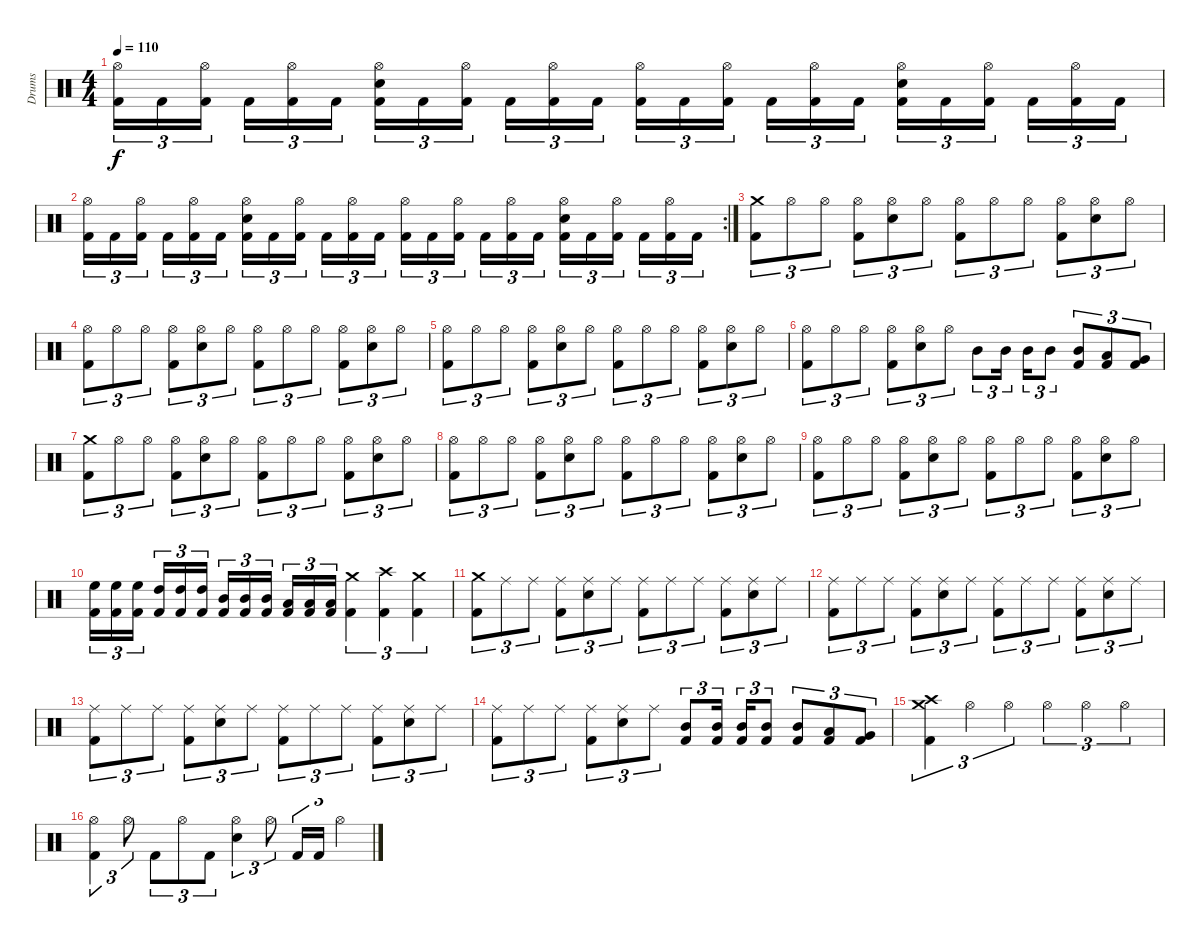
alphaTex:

\track ("Drums" "Drums") {instrument percussion}
\staff {score}
\articulation defaults
\ts (4 4)
\tempo 110
\clef neutral
\ks c
("Kick (hit) 2" "Hi-Hat (open)").16{tu (3 2) dy f} "Kick (hit) 2".16{tu (3 2)} ("Kick (hit) 2" "Hi-Hat (open)").16{tu (3 2)} "Kick (hit) 2".16{tu (3 2)} ("Kick (hit) 2" "Hi-Hat (open)").16{tu (3 2)} "Kick (hit) 2".16{tu (3 2)} ("Kick (hit) 2" "Electric Snare (hit)" "Hi-Hat (open)").16{tu (3 2)} "Kick (hit) 2".16{tu (3 2)} ("Kick (hit) 2" "Hi-Hat (open)").16{tu (3 2)} "Kick (hit) 2".16{tu (3 2)} ("Kick (hit) 2" "Hi-Hat (open)").16{tu (3 2)} "Kick (hit) 2".16{tu (3 2)} ("Kick (hit) 2" "Hi-Hat (open)").16{tu (3 2)} "Kick (hit) 2".16{tu (3 2)} ("Kick (hit) 2" "Hi-Hat (open)").16{tu (3 2)} "Kick (hit) 2".16{tu (3 2)} ("Kick (hit) 2" "Hi-Hat (open)").16{tu (3 2)} "Kick (hit) 2".16{tu (3 2)} ("Kick (hit) 2" "Electric Snare (hit)" "Hi-Hat (open)").16{tu (3 2)} "Kick (hit) 2".16{tu (3 2)} ("Kick (hit) 2" "Hi-Hat (open)").16{tu (3 2)} "Kick (hit) 2".16{tu (3 2)} ("Kick (hit) 2" "Hi-Hat (open)").16{tu (3 2)} "Kick (hit) 2".16{tu (3 2)} |
\rc 2
("Kick (hit) 2" "Hi-Hat (open)").16{tu (3 2)} "Kick (hit) 2".16{tu (3 2)} ("Kick (hit) 2" "Hi-Hat (open)").16{tu (3 2)} "Kick (hit) 2".16{tu (3 2)} ("Kick (hit) 2" "Hi-Hat (open)").16{tu (3 2)} "Kick (hit) 2".16{tu (3 2)} ("Kick (hit) 2" "Electric Snare (hit)" "Hi-Hat (open)").16{tu (3 2)} "Kick (hit) 2".16{tu (3 2)} ("Kick (hit) 2" "Hi-Hat (open)").16{tu (3 2)} "Kick (hit) 2".16{tu (3 2)} ("Kick (hit) 2" "Hi-Hat (open)").16{tu (3 2)} "Kick (hit) 2".16{tu (3 2)} ("Kick (hit) 2" "Hi-Hat (open)").16{tu (3 2)} "Kick (hit) 2".16{tu (3 2)} ("Kick (hit) 2" "Hi-Hat (open)").16{tu (3 2)} "Kick (hit) 2".16{tu (3 2)} ("Kick (hit) 2" "Hi-Hat (open)").16{tu (3 2)} "Kick (hit) 2".16{tu (3 2)} ("Kick (hit) 2" "Electric Snare (hit)" "Hi-Hat (open)").16{tu (3 2)} "Kick (hit) 2".16{tu (3 2)} ("Kick (hit) 2" "Hi-Hat (open)").16{tu (3 2)} "Kick (hit) 2".16{tu (3 2)} ("Kick (hit) 2" "Hi-Hat (open)").16{tu (3 2)} "Kick (hit) 2".16{tu (3 2)} |
("Kick (hit) 2" "Crash medium (hit)").8{tu (3 2)} "Hi-Hat (open)".8{tu (3 2)} "Hi-Hat (open)".8{tu (3 2)} ("Kick (hit) 2" "Hi-Hat (open)").8{tu (3 2)} ("Electric Snare (hit)" "Hi-Hat (open)").8{tu (3 2)} "Hi-Hat (open)".8{tu (3 2)} ("Kick (hit) 2" "Hi-Hat (open)").8{tu (3 2)} "Hi-Hat (open)".8{tu (3 2)} "Hi-Hat (open)".8{tu (3 2)} ("Kick (hit) 2" "Hi-Hat (open)").8{tu (3 2)} ("Electric Snare (hit)" "Hi-Hat (open)").8{tu (3 2)} "Hi-Hat (open)".8{tu (3 2)} |
("Kick (hit) 2" "Hi-Hat (open)").8{tu (3 2)} "Hi-Hat (open)".8{tu (3 2)} "Hi-Hat (open)".8{tu (3 2)} ("Kick (hit) 2" "Hi-Hat (open)").8{tu (3 2)} ("Electric Snare (hit)" "Hi-Hat (open)").8{tu (3 2)} "Hi-Hat (open)".8{tu (3 2)} ("Kick (hit) 2" "Hi-Hat (open)").8{tu (3 2)} "Hi-Hat (open)".8{tu (3 2)} "Hi-Hat (open)".8{tu (3 2)} ("Kick (hit) 2" "Hi-Hat (open)").8{tu (3 2)} ("Electric Snare (hit)" "Hi-Hat (open)").8{tu (3 2)} "Hi-Hat (open)".8{tu (3 2)} |
("Kick (hit) 2" "Hi-Hat (open)").8{tu (3 2)} "Hi-Hat (open)".8{tu (3 2)} "Hi-Hat (open)".8{tu (3 2)} ("Kick (hit) 2" "Hi-Hat (open)").8{tu (3 2)} ("Electric Snare (hit)" "Hi-Hat (open)").8{tu (3 2)} "Hi-Hat (open)".8{tu (3 2)} ("Kick (hit) 2" "Hi-Hat (open)").8{tu (3 2)} "Hi-Hat (open)".8{tu (3 2)} "Hi-Hat (open)".8{tu (3 2)} ("Kick (hit) 2" "Hi-Hat (open)").8{tu (3 2)} ("Electric Snare (hit)" "Hi-Hat (open)").8{tu (3 2)} "Hi-Hat (open)".8{tu (3 2)} |
("Kick (hit) 2" "Hi-Hat (open)").8{tu (3 2)} "Hi-Hat (open)".8{tu (3 2)} "Hi-Hat (open)".8{tu (3 2)} ("Kick (hit) 2" "Hi-Hat (open)").8{tu (3 2)} ("Electric Snare (hit)" "Hi-Hat (open)").8{tu (3 2)} "Hi-Hat (open)".8{tu (3 2)} "Mid Tom (hit)".8{tu (3 2)} "Mid Tom (hit)".16{tu (3 2)} "Mid Tom (hit)".16{tu (3 2)} "Mid Tom (hit)".8{tu (3 2)} ("Kick (hit) 2" "Mid Tom (hit)").8{tu (3 2)} ("Kick (hit) 2" "Low Tom (hit)").8{tu (3 2)} ("Kick (hit) 2" "Very Low Tom (hit)").8{tu (3 2)} |
("Kick (hit) 2" "Crash medium (hit)").8{tu (3 2)} "Hi-Hat (open)".8{tu (3 2)} "Hi-Hat (open)".8{tu (3 2)} ("Kick (hit) 2" "Hi-Hat (open)").8{tu (3 2)} ("Electric Snare (hit)" "Hi-Hat (open)").8{tu (3 2)} "Hi-Hat (open)".8{tu (3 2)} ("Kick (hit) 2" "Hi-Hat (open)").8{tu (3 2)} "Hi-Hat (open)".8{tu (3 2)} "Hi-Hat (open)".8{tu (3 2)} ("Kick (hit) 2" "Hi-Hat (open)").8{tu (3 2)} ("Electric Snare (hit)" "Hi-Hat (open)").8{tu (3 2)} "Hi-Hat (open)".8{tu (3 2)} |
("Kick (hit) 2" "Hi-Hat (open)").8{tu (3 2)} "Hi-Hat (open)".8{tu (3 2)} "Hi-Hat (open)".8{tu (3 2)} ("Kick (hit) 2" "Hi-Hat (open)").8{tu (3 2)} ("Electric Snare (hit)" "Hi-Hat (open)").8{tu (3 2)} "Hi-Hat (open)".8{tu (3 2)} ("Kick (hit) 2" "Hi-Hat (open)").8{tu (3 2)} "Hi-Hat (open)".8{tu (3 2)} "Hi-Hat (open)".8{tu (3 2)} ("Kick (hit) 2" "Hi-Hat (open)").8{tu (3 2)} ("Electric Snare (hit)" "Hi-Hat (open)").8{tu (3 2)} "Hi-Hat (open)".8{tu (3 2)} |
("Kick (hit) 2" "Hi-Hat (open)").8{tu (3 2)} "Hi-Hat (open)".8{tu (3 2)} "Hi-Hat (open)".8{tu (3 2)} ("Kick (hit) 2" "Hi-Hat (open)").8{tu (3 2)} ("Electric Snare (hit)" "Hi-Hat (open)").8{tu (3 2)} "Hi-Hat (open)".8{tu (3 2)} ("Kick (hit) 2" "Hi-Hat (open)").8{tu (3 2)} "Hi-Hat (open)".8{tu (3 2)} "Hi-Hat (open)".8{tu (3 2)} ("Kick (hit) 2" "Hi-Hat (open)").8{tu (3 2)} ("Electric Snare (hit)" "Hi-Hat (open)").8{tu (3 2)} "Hi-Hat (open)".8{tu (3 2)} |
("Kick (hit) 2" "High Floor Tom (hit)").16{tu (3 2)} ("Kick (hit) 2" "High Floor Tom (hit)").16{tu (3 2)} ("Kick (hit) 2" "High Floor Tom (hit)").16{tu (3 2)} ("Kick (hit) 2" "High Tom (hit)").16{tu (3 2)} ("Kick (hit) 2" "High Tom (hit)").16{tu (3 2)} ("Kick (hit) 2" "High Tom (hit)").16{tu (3 2)} ("Kick (hit) 2" "Mid Tom (hit)").16{tu (3 2)} ("Kick (hit) 2" "Mid Tom (hit)").16{tu (3 2)} ("Kick (hit) 2" "Mid Tom (hit)").16{tu (3 2)} ("Kick (hit) 2" "Low Tom (hit)").16{tu (3 2)} ("Kick (hit) 2" "Low Tom (hit)").16{tu (3 2)} ("Kick (hit) 2" "Low Tom (hit)").16{tu (3 2)} ("Kick (hit) 2" "Crash medium (hit)").4{tu (3 2)} ("Kick (hit) 2" "Crash high (hit)").4{tu (3 2)} ("Kick (hit) 2" "Crash medium (hit)").4{tu (3 2)} |
("Kick (hit) 2" "Crash medium (hit)").8{tu (3 2)} "Ride (middle)".8{tu (3 2)} "Ride (middle)".8{tu (3 2)} ("Kick (hit) 2" "Ride (middle)").8{tu (3 2)} ("Electric Snare (hit)" "Ride (middle)").8{tu (3 2)} "Ride (middle)".8{tu (3 2)} ("Kick (hit) 2" "Ride (middle)").8{tu (3 2)} "Ride (middle)".8{tu (3 2)} "Ride (middle)".8{tu (3 2)} ("Kick (hit) 2" "Ride (middle)").8{tu (3 2)} ("Electric Snare (hit)" "Ride (middle)").8{tu (3 2)} "Ride (middle)".8{tu (3 2)} |
("Kick (hit) 2" "Ride (middle)").8{tu (3 2)} "Ride (middle)".8{tu (3 2)} "Ride (middle)".8{tu (3 2)} ("Kick (hit) 2" "Ride (middle)").8{tu (3 2)} ("Electric Snare (hit)" "Ride (middle)").8{tu (3 2)} "Ride (middle)".8{tu (3 2)} ("Kick (hit) 2" "Ride (middle)").8{tu (3 2)} "Ride (middle)".8{tu (3 2)} "Ride (middle)".8{tu (3 2)} ("Kick (hit) 2" "Ride (middle)").8{tu (3 2)} ("Electric Snare (hit)" "Ride (middle)").8{tu (3 2)} "Ride (middle)".8{tu (3 2)} |
("Kick (hit) 2" "Ride (middle)").8{tu (3 2)} "Ride (middle)".8{tu (3 2)} "Ride (middle)".8{tu (3 2)} ("Kick (hit) 2" "Ride (middle)").8{tu (3 2)} ("Electric Snare (hit)" "Ride (middle)").8{tu (3 2)} "Ride (middle)".8{tu (3 2)} ("Kick (hit) 2" "Ride (middle)").8{tu (3 2)} "Ride (middle)".8{tu (3 2)} "Ride (middle)".8{tu (3 2)} ("Kick (hit) 2" "Ride (middle)").8{tu (3 2)} ("Electric Snare (hit)" "Ride (middle)").8{tu (3 2)} "Ride (middle)".8{tu (3 2)} |
("Kick (hit) 2" "Ride (middle)").8{tu (3 2)} "Ride (middle)".8{tu (3 2)} "Ride (middle)".8{tu (3 2)} ("Kick (hit) 2" "Ride (middle)").8{tu (3 2)} ("Electric Snare (hit)" "Ride (middle)").8{tu (3 2)} "Ride (middle)".8{tu (3 2)} ("Kick (hit) 2" "Mid Tom (hit)").8{tu (3 2)} ("Kick (hit) 2" "Mid Tom (hit)").16{tu (3 2)} ("Kick (hit) 2" "Mid Tom (hit)").16{tu (3 2)} ("Kick (hit) 2" "Mid Tom (hit)").8{tu (3 2)} ("Kick (hit) 2" "Mid Tom (hit)").8{tu (3 2)} ("Kick (hit) 2" "Low Tom (hit)").8{tu (3 2)} ("Kick (hit) 2" "Very Low Tom (hit)").8{tu (3 2)} |
("Kick (hit) 2" "Crash high (hit)" "Crash medium (hit)").4{tu (3 2)} "Hi-Hat (open)".4{tu (3 2)} "Hi-Hat (open)".4{tu (3 2)} "Hi-Hat (open)".4{tu (3 2)} "Hi-Hat (open)".4{tu (3 2)} "Hi-Hat (open)".4{tu (3 2)} |
("Kick (hit) 2" "Hi-Hat (open)").4{tu (3 2)} "Hi-Hat (open)".8{tu (3 2)} "Kick (hit) 2".8{tu (3 2)} "Hi-Hat (open)".8{tu (3 2)} "Kick (hit) 2".8{tu (3 2)} ("Electric Snare (hit)" "Hi-Hat (open)").4{tu (3 2)} "Hi-Hat (open)".8{tu (3 2)} "Kick (hit) 2".16{tu (3 2)} "Kick (hit) 2".16{tu (3 2)} "Hi-Hat (open)".4{tu (3 2)}
